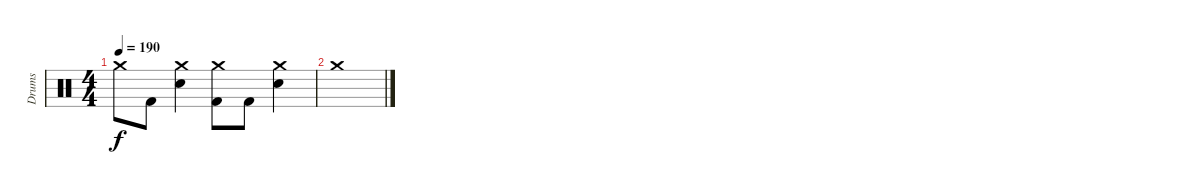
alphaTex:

\track ("Drums" "Drums") {instrument percussion}
\staff {score}
\articulation defaults
\ts (4 4)
\tempo 190
\clef neutral
\ks c "Crash medium (hit)".8{dy f} "Kick (hit) 2".8
("Crash medium (hit)" "Electric Snare (hit)").4 ("Crash medium (hit)" "Kick (hit) 2").8 "Kick (hit) 2".8 ("Crash medium (hit)" "Electric Snare (hit)").4 |
"Crash medium (hit)".1
